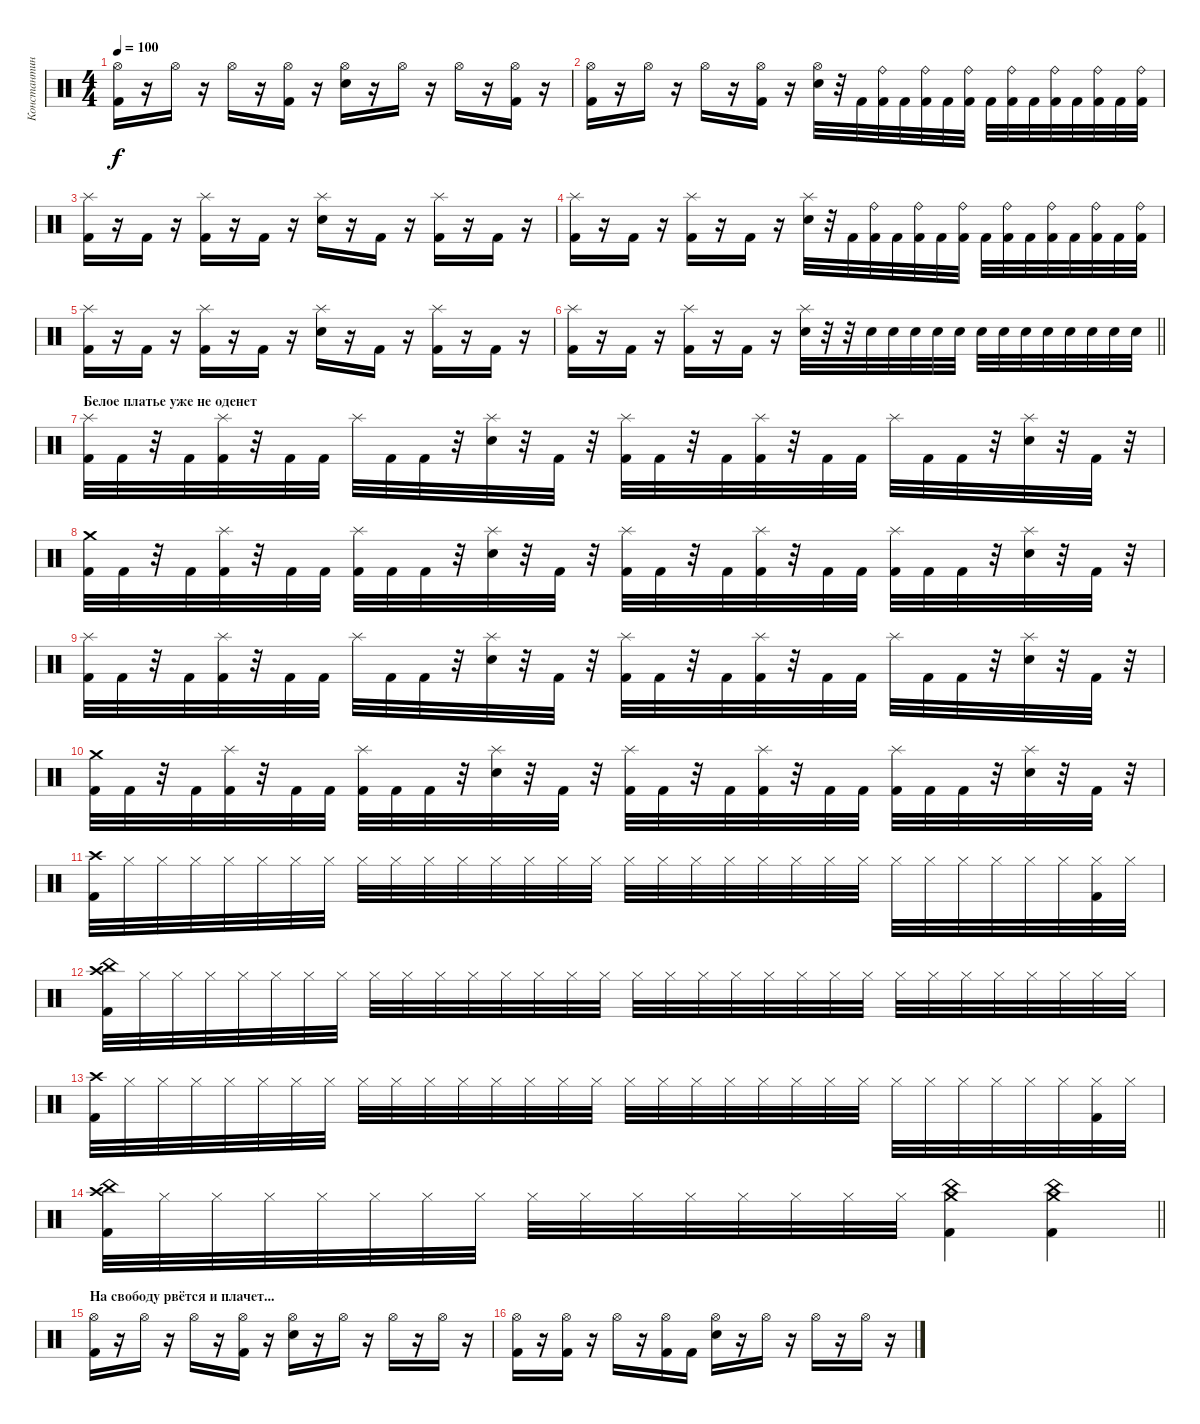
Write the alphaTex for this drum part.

\track ("Константин \"Салян\" Сальников" "Константин") {instrument percussion}
\staff {score}
\articulation defaults
\ts (4 4)
\tempo 100
\clef neutral
\ks c
("Hi-Hat (open)" "Kick (hit) 2").16{dy f} r.16 "Hi-Hat (open)".16 r.16 "Hi-Hat (open)".16 r.16 ("Hi-Hat (open)" "Kick (hit) 2").16 r.16 ("Hi-Hat (open)" "Electric Snare (hit)").16 r.16 "Hi-Hat (open)".16 r.16 "Hi-Hat (open)".16 r.16 ("Hi-Hat (open)" "Kick (hit) 2").16 r.16 |
("Hi-Hat (open)" "Kick (hit) 2").16 r.16 "Hi-Hat (open)".16 r.16 "Hi-Hat (open)".16 r.16 ("Hi-Hat (open)" "Kick (hit) 2").16 r.16 ("Hi-Hat (open)" "Electric Snare (hit)").32 r.32 "Kick (hit) 2".32 ("Ride (bell)" "Kick (hit) 2").32 "Kick (hit) 2".32 ("Ride (bell)" "Kick (hit) 2").32 "Kick (hit) 2".32 ("Ride (bell)" "Kick (hit) 2").32 "Kick (hit) 2".32 ("Ride (bell)" "Kick (hit) 2").32 "Kick (hit) 2".32 ("Ride (bell)" "Kick (hit) 2").32 "Kick (hit) 2".32 ("Ride (bell)" "Kick (hit) 2").32 "Kick (hit) 2".32 ("Ride (bell)" "Kick (hit) 2").32 |
("Splash (hit)" "Kick (hit) 2").16 r.16 "Kick (hit) 2".16 r.16 ("Splash (hit)" "Kick (hit) 2").16 r.16 "Kick (hit) 2".16 r.16 ("Splash (hit)" "Electric Snare (hit)").16 r.16 "Kick (hit) 2".16 r.16 ("Splash (hit)" "Kick (hit) 2").16 r.16 "Kick (hit) 2".16 r.16 |
("Splash (hit)" "Kick (hit) 2").16 r.16 "Kick (hit) 2".16 r.16 ("Splash (hit)" "Kick (hit) 2").16 r.16 "Kick (hit) 2".16 r.16 ("Splash (hit)" "Electric Snare (hit)").32 r.32 "Kick (hit) 2".32 ("Ride (bell)" "Kick (hit) 2").32 "Kick (hit) 2".32 ("Ride (bell)" "Kick (hit) 2").32 "Kick (hit) 2".32 ("Ride (bell)" "Kick (hit) 2").32 "Kick (hit) 2".32 ("Ride (bell)" "Kick (hit) 2").32 "Kick (hit) 2".32 ("Ride (bell)" "Kick (hit) 2").32 "Kick (hit) 2".32 ("Ride (bell)" "Kick (hit) 2").32 "Kick (hit) 2".32 ("Ride (bell)" "Kick (hit) 2").32 |
("Splash (hit)" "Kick (hit) 2").16 r.16 "Kick (hit) 2".16 r.16 ("Splash (hit)" "Kick (hit) 2").16 r.16 "Kick (hit) 2".16 r.16 ("Splash (hit)" "Electric Snare (hit)").16 r.16 "Kick (hit) 2".16 r.16 ("Splash (hit)" "Kick (hit) 2").16 r.16 "Kick (hit) 2".16 r.16 |
\barLineRight lightlight
("Splash (hit)" "Kick (hit) 2").16 r.16 "Kick (hit) 2".16 r.16 ("Splash (hit)" "Kick (hit) 2").16 r.16 "Kick (hit) 2".16 r.16 ("Splash (hit)" "Electric Snare (hit)").32 r.32 r.32 "Electric Snare (hit)".32 "Electric Snare (hit)".32 "Electric Snare (hit)".32 "Electric Snare (hit)".32 "Electric Snare (hit)".32 "Electric Snare (hit)".32 "Electric Snare (hit)".32 "Electric Snare (hit)".32 "Electric Snare (hit)".32 "Electric Snare (hit)".32 "Electric Snare (hit)".32 "Electric Snare (hit)".32 "Electric Snare (hit)".32 |
\section ("" "Белое платье уже не оденет")
("Splash (hit)" "Kick (hit) 2").32 "Kick (hit) 2".32 r.32 "Kick (hit) 2".32 ("Splash (hit)" "Kick (hit) 2").32 r.32 "Kick (hit) 2".32 "Kick (hit) 2".32 "Splash (hit)".32 "Kick (hit) 2".32 "Kick (hit) 2".32 r.32 ("Splash (hit)" "Electric Snare (hit)").32 r.32 "Kick (hit) 2".32 r.32 ("Splash (hit)" "Kick (hit) 2").32 "Kick (hit) 2".32 r.32 "Kick (hit) 2".32 ("Splash (hit)" "Kick (hit) 2").32 r.32 "Kick (hit) 2".32 "Kick (hit) 2".32 "Splash (hit)".32 "Kick (hit) 2".32 "Kick (hit) 2".32 r.32 ("Splash (hit)" "Electric Snare (hit)").32 r.32 "Kick (hit) 2".32 r.32 |
("Crash medium (hit)" "Kick (hit) 2").32 "Kick (hit) 2".32 r.32 "Kick (hit) 2".32 ("Splash (hit)" "Kick (hit) 2").32 r.32 "Kick (hit) 2".32 "Kick (hit) 2".32 ("Splash (hit)" "Kick (hit) 2").32 "Kick (hit) 2".32 "Kick (hit) 2".32 r.32 ("Splash (hit)" "Electric Snare (hit)").32 r.32 "Kick (hit) 2".32 r.32 ("Splash (hit)" "Kick (hit) 2").32 "Kick (hit) 2".32 r.32 "Kick (hit) 2".32 ("Splash (hit)" "Kick (hit) 2").32 r.32 "Kick (hit) 2".32 "Kick (hit) 2".32 ("Splash (hit)" "Kick (hit) 2").32 "Kick (hit) 2".32 "Kick (hit) 2".32 r.32 ("Splash (hit)" "Electric Snare (hit)").32 r.32 "Kick (hit) 2".32 r.32 |
("Splash (hit)" "Kick (hit) 2").32 "Kick (hit) 2".32 r.32 "Kick (hit) 2".32 ("Splash (hit)" "Kick (hit) 2").32 r.32 "Kick (hit) 2".32 "Kick (hit) 2".32 "Splash (hit)".32 "Kick (hit) 2".32 "Kick (hit) 2".32 r.32 ("Splash (hit)" "Electric Snare (hit)").32 r.32 "Kick (hit) 2".32 r.32 ("Splash (hit)" "Kick (hit) 2").32 "Kick (hit) 2".32 r.32 "Kick (hit) 2".32 ("Splash (hit)" "Kick (hit) 2").32 r.32 "Kick (hit) 2".32 "Kick (hit) 2".32 "Splash (hit)".32 "Kick (hit) 2".32 "Kick (hit) 2".32 r.32 ("Splash (hit)" "Electric Snare (hit)").32 r.32 "Kick (hit) 2".32 r.32 |
("Crash medium (hit)" "Kick (hit) 2").32 "Kick (hit) 2".32 r.32 "Kick (hit) 2".32 ("Splash (hit)" "Kick (hit) 2").32 r.32 "Kick (hit) 2".32 "Kick (hit) 2".32 ("Splash (hit)" "Kick (hit) 2").32 "Kick (hit) 2".32 "Kick (hit) 2".32 r.32 ("Splash (hit)" "Electric Snare (hit)").32 r.32 "Kick (hit) 2".32 r.32 ("Splash (hit)" "Kick (hit) 2").32 "Kick (hit) 2".32 r.32 "Kick (hit) 2".32 ("Splash (hit)" "Kick (hit) 2").32 r.32 "Kick (hit) 2".32 "Kick (hit) 2".32 ("Splash (hit)" "Kick (hit) 2").32 "Kick (hit) 2".32 "Kick (hit) 2".32 r.32 ("Splash (hit)" "Electric Snare (hit)").32 r.32 "Kick (hit) 2".32 r.32 |
("Crash high (hit)" "Kick (hit) 2").32 "Hi-Hat (closed)".32 "Hi-Hat (closed)".32 "Hi-Hat (closed)".32 "Hi-Hat (closed)".32 "Hi-Hat (closed)".32 "Hi-Hat (closed)".32 "Hi-Hat (closed)".32 "Hi-Hat (closed)".32 "Hi-Hat (closed)".32 "Hi-Hat (closed)".32 "Hi-Hat (closed)".32 "Hi-Hat (closed)".32 "Hi-Hat (closed)".32 "Hi-Hat (closed)".32 "Hi-Hat (closed)".32 "Hi-Hat (closed)".32 "Hi-Hat (closed)".32 "Hi-Hat (closed)".32 "Hi-Hat (closed)".32 "Hi-Hat (closed)".32 "Hi-Hat (closed)".32 "Hi-Hat (closed)".32 "Hi-Hat (closed)".32 "Hi-Hat (closed)".32 "Hi-Hat (closed)".32 "Hi-Hat (closed)".32 "Hi-Hat (closed)".32 "Hi-Hat (closed)".32 "Hi-Hat (closed)".32 ("Hi-Hat (closed)" "Kick (hit) 2").32 "Hi-Hat (closed)".32 |
("Crash high (hit)" "Kick (hit) 2" "China (hit)").32 "Hi-Hat (closed)".32 "Hi-Hat (closed)".32 "Hi-Hat (closed)".32 "Hi-Hat (closed)".32 "Hi-Hat (closed)".32 "Hi-Hat (closed)".32 "Hi-Hat (closed)".32 "Hi-Hat (closed)".32 "Hi-Hat (closed)".32 "Hi-Hat (closed)".32 "Hi-Hat (closed)".32 "Hi-Hat (closed)".32 "Hi-Hat (closed)".32 "Hi-Hat (closed)".32 "Hi-Hat (closed)".32 "Hi-Hat (closed)".32 "Hi-Hat (closed)".32 "Hi-Hat (closed)".32 "Hi-Hat (closed)".32 "Hi-Hat (closed)".32 "Hi-Hat (closed)".32 "Hi-Hat (closed)".32 "Hi-Hat (closed)".32 "Hi-Hat (closed)".32 "Hi-Hat (closed)".32 "Hi-Hat (closed)".32 "Hi-Hat (closed)".32 "Hi-Hat (closed)".32 "Hi-Hat (closed)".32 "Hi-Hat (closed)".32 "Hi-Hat (closed)".32 |
("Crash high (hit)" "Kick (hit) 2").32 "Hi-Hat (closed)".32 "Hi-Hat (closed)".32 "Hi-Hat (closed)".32 "Hi-Hat (closed)".32 "Hi-Hat (closed)".32 "Hi-Hat (closed)".32 "Hi-Hat (closed)".32 "Hi-Hat (closed)".32 "Hi-Hat (closed)".32 "Hi-Hat (closed)".32 "Hi-Hat (closed)".32 "Hi-Hat (closed)".32 "Hi-Hat (closed)".32 "Hi-Hat (closed)".32 "Hi-Hat (closed)".32 "Hi-Hat (closed)".32 "Hi-Hat (closed)".32 "Hi-Hat (closed)".32 "Hi-Hat (closed)".32 "Hi-Hat (closed)".32 "Hi-Hat (closed)".32 "Hi-Hat (closed)".32 "Hi-Hat (closed)".32 "Hi-Hat (closed)".32 "Hi-Hat (closed)".32 "Hi-Hat (closed)".32 "Hi-Hat (closed)".32 "Hi-Hat (closed)".32 "Hi-Hat (closed)".32 ("Hi-Hat (closed)" "Kick (hit) 2").32 "Hi-Hat (closed)".32 |
\barLineRight lightlight
("Crash high (hit)" "Kick (hit) 2" "China (hit)").32 "Hi-Hat (closed)".32 "Hi-Hat (closed)".32 "Hi-Hat (closed)".32 "Hi-Hat (closed)".32 "Hi-Hat (closed)".32 "Hi-Hat (closed)".32 "Hi-Hat (closed)".32 "Hi-Hat (closed)".32 "Hi-Hat (closed)".32 "Hi-Hat (closed)".32 "Hi-Hat (closed)".32 "Hi-Hat (closed)".32 "Hi-Hat (closed)".32 "Hi-Hat (closed)".32 "Hi-Hat (closed)".32 ("China (hit)" "Kick (hit) 2" "Crash medium (hit)").4 ("China (hit)" "Kick (hit) 2" "Crash medium (hit)").4 |
\section ("" "На свободу рвётся и плачет...")
("Hi-Hat (open)" "Kick (hit) 2").16 r.16 "Hi-Hat (open)".16 r.16 "Hi-Hat (open)".16 r.16 ("Hi-Hat (open)" "Kick (hit) 2").16 r.16 ("Hi-Hat (open)" "Electric Snare (hit)").16 r.16 "Hi-Hat (open)".16 r.16 "Hi-Hat (open)".16 r.16 "Hi-Hat (open)".16 r.16 |
("Hi-Hat (open)" "Kick (hit) 2").16 r.16 ("Hi-Hat (open)" "Kick (hit) 2").16 r.16 "Hi-Hat (open)".16 r.16 ("Hi-Hat (open)" "Kick (hit) 2").16 "Kick (hit) 2".16 ("Hi-Hat (open)" "Electric Snare (hit)").16 r.16 "Hi-Hat (open)".16 r.16 "Hi-Hat (open)".16 r.16 "Hi-Hat (open)".16 r.16
